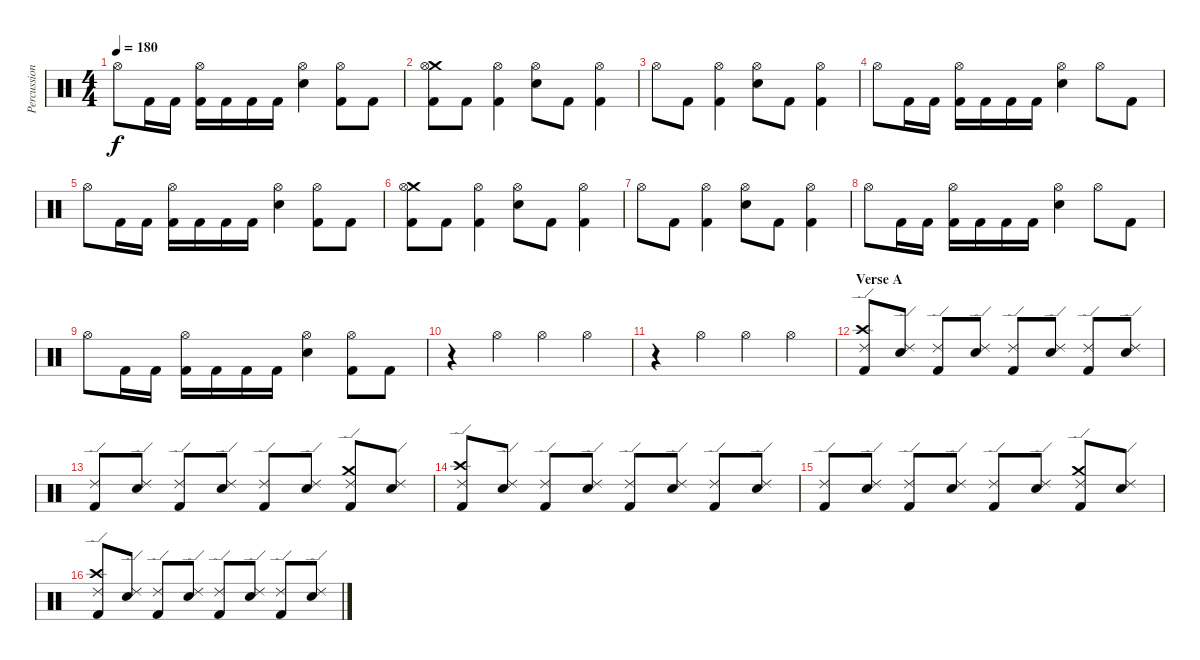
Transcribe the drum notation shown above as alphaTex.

\track ("Percussion" "Percussion") {instrument percussion}
\staff {score}
\articulation defaults
\ts (4 4)
\tempo 180
\clef neutral
\ks c "Hi-Hat (open)".8{dy f} "Kick (hit) 2".16 "Kick (hit) 2".16
("Hi-Hat (open)" "Kick (hit) 2").16 "Kick (hit) 2".16 "Kick (hit) 2".16 "Kick (hit) 2".16 ("Hi-Hat (open)" "Electric Snare (hit)").4 ("Hi-Hat (open)" "Kick (hit) 2").8 "Kick (hit) 2".8 |
("Crash medium (hit)" "Hi-Hat (open)" "Kick (hit) 2").8 "Kick (hit) 2".8 ("Hi-Hat (open)" "Kick (hit) 2").4 ("Hi-Hat (open)" "Electric Snare (hit)").8 "Kick (hit) 2".8 ("Hi-Hat (open)" "Kick (hit) 2").4 |
"Hi-Hat (open)".8 "Kick (hit) 2".8 ("Hi-Hat (open)" "Kick (hit) 2").4 ("Hi-Hat (open)" "Electric Snare (hit)").8 "Kick (hit) 2".8 ("Hi-Hat (open)" "Kick (hit) 2").4 |
"Hi-Hat (open)".8 "Kick (hit) 2".16 "Kick (hit) 2".16 ("Hi-Hat (open)" "Kick (hit) 2").16 "Kick (hit) 2".16 "Kick (hit) 2".16 "Kick (hit) 2".16 ("Hi-Hat (open)" "Electric Snare (hit)").4 "Hi-Hat (open)".8 "Kick (hit) 2".8 |
"Hi-Hat (open)".8 "Kick (hit) 2".16 "Kick (hit) 2".16 ("Hi-Hat (open)" "Kick (hit) 2").16 "Kick (hit) 2".16 "Kick (hit) 2".16 "Kick (hit) 2".16 ("Hi-Hat (open)" "Electric Snare (hit)").4 ("Hi-Hat (open)" "Kick (hit) 2").8 "Kick (hit) 2".8 |
("Crash medium (hit)" "Hi-Hat (open)" "Kick (hit) 2").8 "Kick (hit) 2".8 ("Hi-Hat (open)" "Kick (hit) 2").4 ("Hi-Hat (open)" "Electric Snare (hit)").8 "Kick (hit) 2".8 ("Hi-Hat (open)" "Kick (hit) 2").4 |
"Hi-Hat (open)".8 "Kick (hit) 2".8 ("Hi-Hat (open)" "Kick (hit) 2").4 ("Hi-Hat (open)" "Electric Snare (hit)").8 "Kick (hit) 2".8 ("Hi-Hat (open)" "Kick (hit) 2").4 |
"Hi-Hat (open)".8 "Kick (hit) 2".16 "Kick (hit) 2".16 ("Hi-Hat (open)" "Kick (hit) 2").16 "Kick (hit) 2".16 "Kick (hit) 2".16 "Kick (hit) 2".16 ("Hi-Hat (open)" "Electric Snare (hit)").4 "Hi-Hat (open)".8 "Kick (hit) 2".8 |
"Hi-Hat (open)".8 "Kick (hit) 2".16 "Kick (hit) 2".16 ("Hi-Hat (open)" "Kick (hit) 2").16 "Kick (hit) 2".16 "Kick (hit) 2".16 "Kick (hit) 2".16 ("Hi-Hat (open)" "Electric Snare (hit)").4 ("Hi-Hat (open)" "Kick (hit) 2").8 "Kick (hit) 2".8 |
r.4 "Hi-Hat (open)".4 "Hi-Hat (open)".4 "Hi-Hat (open)".4 |
r.4 "Hi-Hat (open)".4 "Hi-Hat (open)".4 "Hi-Hat (open)".4 |
\section ("" "Verse A")
("Crash high (hit)" "Ride (edge) 2" "Kick (hit) 2").8 ("Ride (edge) 2" "Electric Snare (hit)").8 ("Ride (edge) 2" "Kick (hit) 2").8 ("Ride (edge) 2" "Electric Snare (hit)").8 ("Ride (edge) 2" "Kick (hit) 2").8 ("Ride (edge) 2" "Electric Snare (hit)").8 ("Ride (edge) 2" "Kick (hit) 2").8 ("Ride (edge) 2" "Electric Snare (hit)").8 |
("Ride (edge) 2" "Kick (hit) 2").8 ("Ride (edge) 2" "Electric Snare (hit)").8 ("Ride (edge) 2" "Kick (hit) 2").8 ("Ride (edge) 2" "Electric Snare (hit)").8 ("Ride (edge) 2" "Kick (hit) 2").8 ("Ride (edge) 2" "Electric Snare (hit)").8 ("Crash medium (hit)" "Ride (edge) 2" "Kick (hit) 2").8 ("Ride (edge) 2" "Electric Snare (hit)").8 |
("Crash high (hit)" "Ride (edge) 2" "Kick (hit) 2").8 ("Ride (edge) 2" "Electric Snare (hit)").8 ("Ride (edge) 2" "Kick (hit) 2").8 ("Ride (edge) 2" "Electric Snare (hit)").8 ("Ride (edge) 2" "Kick (hit) 2").8 ("Ride (edge) 2" "Electric Snare (hit)").8 ("Ride (edge) 2" "Kick (hit) 2").8 ("Ride (edge) 2" "Electric Snare (hit)").8 |
("Ride (edge) 2" "Kick (hit) 2").8 ("Ride (edge) 2" "Electric Snare (hit)").8 ("Ride (edge) 2" "Kick (hit) 2").8 ("Ride (edge) 2" "Electric Snare (hit)").8 ("Ride (edge) 2" "Kick (hit) 2").8 ("Ride (edge) 2" "Electric Snare (hit)").8 ("Crash medium (hit)" "Ride (edge) 2" "Kick (hit) 2").8 ("Ride (edge) 2" "Electric Snare (hit)").8 |
("Crash high (hit)" "Ride (edge) 2" "Kick (hit) 2").8 ("Ride (edge) 2" "Electric Snare (hit)").8 ("Ride (edge) 2" "Kick (hit) 2").8 ("Ride (edge) 2" "Electric Snare (hit)").8 ("Ride (edge) 2" "Kick (hit) 2").8 ("Ride (edge) 2" "Electric Snare (hit)").8 ("Ride (edge) 2" "Kick (hit) 2").8 ("Ride (edge) 2" "Electric Snare (hit)").8
